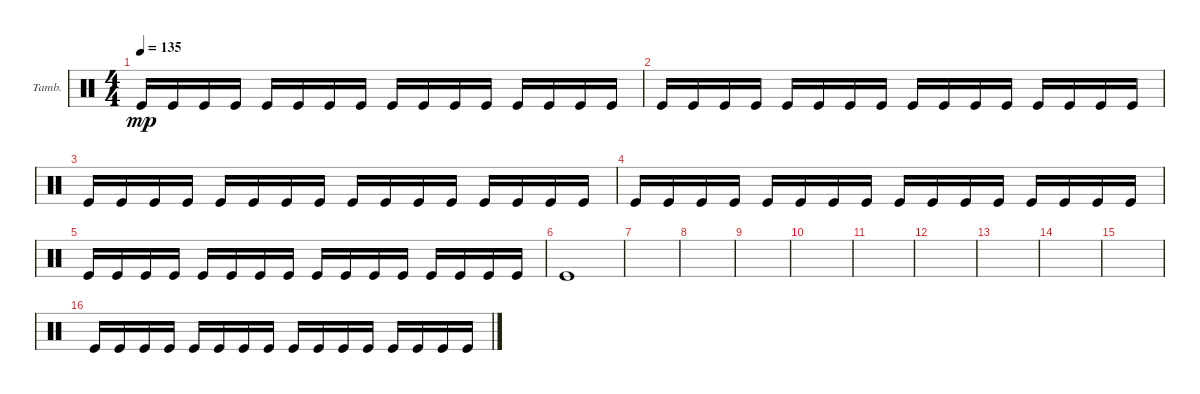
\defaultSystemsLayout 4
\bracketExtendMode groupsimilarinstruments
\firstSystemTrackNameOrientation horizontal
\otherSystemsTrackNameOrientation horizontal
\track ("Tambourine" "Tamb.") {instrument percussion}
\staff {score}
\articulation defaults
\ts (4 4)
\tempo 135
\clef neutral
\ks c "Kick (hit)".16{dy mp} "Kick (hit)".16 "Kick (hit)".16 "Kick (hit)".16 "Kick (hit)".16 "Kick (hit)".16 "Kick (hit)".16 "Kick (hit)".16 "Kick (hit)".16 "Kick (hit)".16 "Kick (hit)".16 "Kick (hit)".16 "Kick (hit)".16 "Kick (hit)".16 "Kick (hit)".16 "Kick (hit)".16
|
"Kick (hit)".16 "Kick (hit)".16 "Kick (hit)".16 "Kick (hit)".16 "Kick (hit)".16 "Kick (hit)".16 "Kick (hit)".16 "Kick (hit)".16 "Kick (hit)".16 "Kick (hit)".16 "Kick (hit)".16 "Kick (hit)".16 "Kick (hit)".16 "Kick (hit)".16 "Kick (hit)".16 "Kick (hit)".16 |
"Kick (hit)".16 "Kick (hit)".16 "Kick (hit)".16 "Kick (hit)".16 "Kick (hit)".16 "Kick (hit)".16 "Kick (hit)".16 "Kick (hit)".16 "Kick (hit)".16 "Kick (hit)".16 "Kick (hit)".16 "Kick (hit)".16 "Kick (hit)".16 "Kick (hit)".16 "Kick (hit)".16 "Kick (hit)".16 |
"Kick (hit)".16 "Kick (hit)".16 "Kick (hit)".16 "Kick (hit)".16 "Kick (hit)".16 "Kick (hit)".16 "Kick (hit)".16 "Kick (hit)".16 "Kick (hit)".16 "Kick (hit)".16 "Kick (hit)".16 "Kick (hit)".16 "Kick (hit)".16 "Kick (hit)".16 "Kick (hit)".16 "Kick (hit)".16 |
"Kick (hit)".16 "Kick (hit)".16 "Kick (hit)".16 "Kick (hit)".16 "Kick (hit)".16 "Kick (hit)".16 "Kick (hit)".16 "Kick (hit)".16 "Kick (hit)".16 "Kick (hit)".16 "Kick (hit)".16 "Kick (hit)".16 "Kick (hit)".16 "Kick (hit)".16 "Kick (hit)".16 "Kick (hit)".16 |
"Kick (hit)".1 |
|
|
|
|
|
|
|
|
|
"Kick (hit)".16 "Kick (hit)".16 "Kick (hit)".16 "Kick (hit)".16 "Kick (hit)".16 "Kick (hit)".16 "Kick (hit)".16 "Kick (hit)".16 "Kick (hit)".16 "Kick (hit)".16 "Kick (hit)".16 "Kick (hit)".16 "Kick (hit)".16 "Kick (hit)".16 "Kick (hit)".16 "Kick (hit)".16
